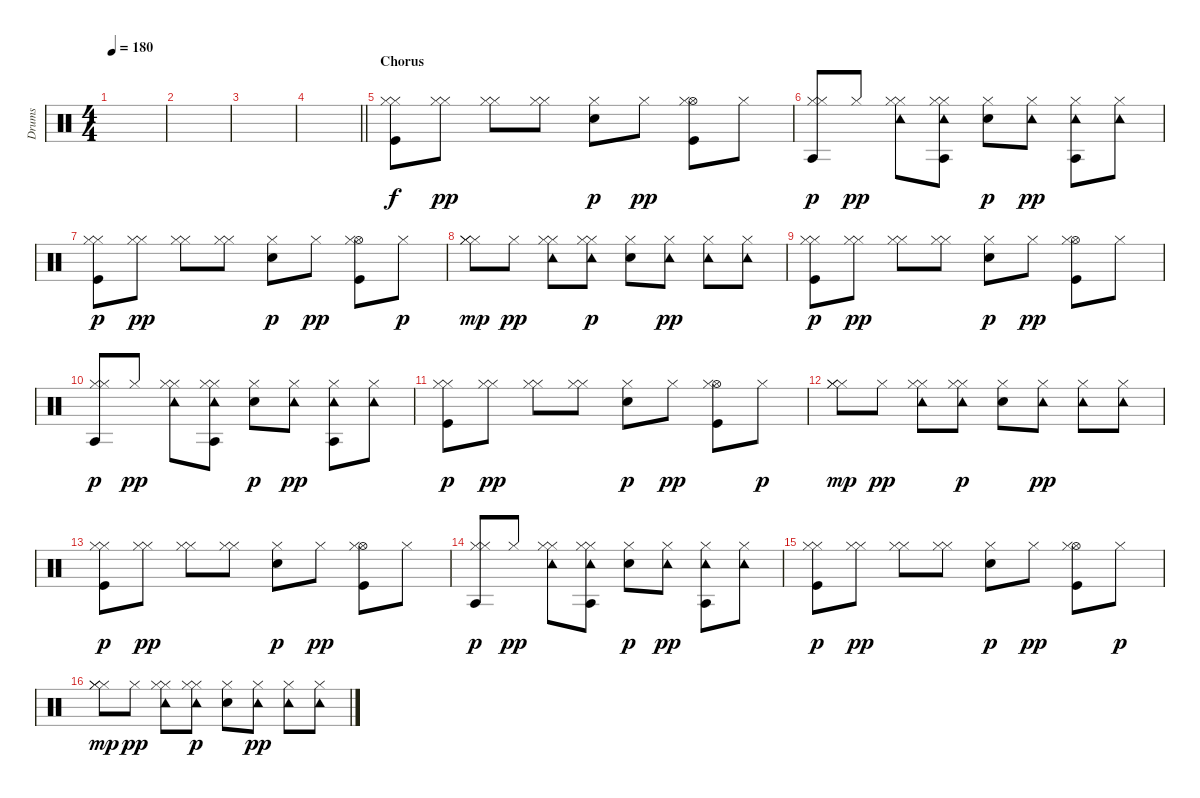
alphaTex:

\track ("Drums" "Drums") {instrument percussion}
\staff {score}
\articulation defaults
\ts (4 4)
\tempo 180
\clef neutral
\ks c
|
|
|
\barLineRight lightlight
|
\section ("" "Chorus")
("Hi-Hat (closed)" "Hi-Hat (closed)" "Kick (hit)").8 ("Hi-Hat (closed)" "Hi-Hat (closed)").8{dy pp} ("Hi-Hat (closed)" "Hi-Hat (closed)").8 ("Hi-Hat (closed)" "Hi-Hat (closed)").8 ("Electric Snare (hit)" "Hi-Hat (closed)").8{dy p} "Hi-Hat (closed)".8{dy pp} ("Hi-Hat (open)" "Hi-Hat (closed)" "Kick (hit)").8 "Hi-Hat (closed)".8 |
("Agogo tow (hit)" "Hi-Hat (closed)" "Hi-Hat (closed)").8{dy p} "Hi-Hat (closed)".8{dy pp} ("Tambourine (hit)" "Hi-Hat (closed)" "Hi-Hat (closed)").8 ("Tambourine (hit)" "Hi-Hat (closed)" "Hi-Hat (closed)" "Agogo tow (hit)").8 ("Electric Snare (hit)" "Hi-Hat (closed)").8{dy p} ("Tambourine (hit)" "Hi-Hat (closed)").8{dy pp} ("Tambourine (hit)" "Hi-Hat (closed)" "Agogo tow (hit)").8 ("Tambourine (hit)" "Hi-Hat (closed)").8 |
("Hi-Hat (closed)" "Hi-Hat (closed)" "Kick (hit)").8{dy p} ("Hi-Hat (closed)" "Hi-Hat (closed)").8{dy pp} ("Hi-Hat (closed)" "Hi-Hat (closed)").8 ("Hi-Hat (closed)" "Hi-Hat (closed)").8 ("Electric Snare (hit)" "Hi-Hat (closed)").8{dy p} "Hi-Hat (closed)".8{dy pp} ("Hi-Hat (open)" "Hi-Hat (closed)" "Kick (hit)").8 "Hi-Hat (closed)".8{dy p} |
("Hi-Hat (closed)" "Hi-Hat (closed)" "Hi-Hat (closed)").8{dy mp} "Hi-Hat (closed)".8{dy pp} ("Tambourine (hit)" "Hi-Hat (closed)" "Hi-Hat (closed)").8 ("Tambourine (hit)" "Hi-Hat (closed)" "Hi-Hat (closed)").8{dy p} ("Electric Snare (hit)" "Hi-Hat (closed)").8 ("Tambourine (hit)" "Hi-Hat (closed)").8{dy pp} ("Tambourine (hit)" "Hi-Hat (closed)").8 ("Tambourine (hit)" "Hi-Hat (closed)").8 |
("Hi-Hat (closed)" "Hi-Hat (closed)" "Kick (hit)").8{dy p} ("Hi-Hat (closed)" "Hi-Hat (closed)").8{dy pp} ("Hi-Hat (closed)" "Hi-Hat (closed)").8 ("Hi-Hat (closed)" "Hi-Hat (closed)").8 ("Electric Snare (hit)" "Hi-Hat (closed)").8{dy p} "Hi-Hat (closed)".8{dy pp} ("Hi-Hat (open)" "Hi-Hat (closed)" "Kick (hit)").8 "Hi-Hat (closed)".8 |
("Agogo tow (hit)" "Hi-Hat (closed)" "Hi-Hat (closed)").8{dy p} "Hi-Hat (closed)".8{dy pp} ("Tambourine (hit)" "Hi-Hat (closed)" "Hi-Hat (closed)").8 ("Tambourine (hit)" "Hi-Hat (closed)" "Hi-Hat (closed)" "Agogo tow (hit)").8 ("Electric Snare (hit)" "Hi-Hat (closed)").8{dy p} ("Tambourine (hit)" "Hi-Hat (closed)").8{dy pp} ("Tambourine (hit)" "Hi-Hat (closed)" "Agogo tow (hit)").8 ("Tambourine (hit)" "Hi-Hat (closed)").8 |
("Hi-Hat (closed)" "Hi-Hat (closed)" "Kick (hit)").8{dy p} ("Hi-Hat (closed)" "Hi-Hat (closed)").8{dy pp} ("Hi-Hat (closed)" "Hi-Hat (closed)").8 ("Hi-Hat (closed)" "Hi-Hat (closed)").8 ("Electric Snare (hit)" "Hi-Hat (closed)").8{dy p} "Hi-Hat (closed)".8{dy pp} ("Hi-Hat (open)" "Hi-Hat (closed)" "Kick (hit)").8 "Hi-Hat (closed)".8{dy p} |
("Hi-Hat (closed)" "Hi-Hat (closed)" "Hi-Hat (closed)").8{dy mp} "Hi-Hat (closed)".8{dy pp} ("Tambourine (hit)" "Hi-Hat (closed)" "Hi-Hat (closed)").8 ("Tambourine (hit)" "Hi-Hat (closed)" "Hi-Hat (closed)").8{dy p} ("Electric Snare (hit)" "Hi-Hat (closed)").8 ("Tambourine (hit)" "Hi-Hat (closed)").8{dy pp} ("Tambourine (hit)" "Hi-Hat (closed)").8 ("Tambourine (hit)" "Hi-Hat (closed)").8 |
("Hi-Hat (closed)" "Hi-Hat (closed)" "Kick (hit)").8{dy p} ("Hi-Hat (closed)" "Hi-Hat (closed)").8{dy pp} ("Hi-Hat (closed)" "Hi-Hat (closed)").8 ("Hi-Hat (closed)" "Hi-Hat (closed)").8 ("Electric Snare (hit)" "Hi-Hat (closed)").8{dy p} "Hi-Hat (closed)".8{dy pp} ("Hi-Hat (open)" "Hi-Hat (closed)" "Kick (hit)").8 "Hi-Hat (closed)".8 |
("Agogo tow (hit)" "Hi-Hat (closed)" "Hi-Hat (closed)").8{dy p} "Hi-Hat (closed)".8{dy pp} ("Tambourine (hit)" "Hi-Hat (closed)" "Hi-Hat (closed)").8 ("Tambourine (hit)" "Hi-Hat (closed)" "Hi-Hat (closed)" "Agogo tow (hit)").8 ("Electric Snare (hit)" "Hi-Hat (closed)").8{dy p} ("Tambourine (hit)" "Hi-Hat (closed)").8{dy pp} ("Tambourine (hit)" "Hi-Hat (closed)" "Agogo tow (hit)").8 ("Tambourine (hit)" "Hi-Hat (closed)").8 |
("Hi-Hat (closed)" "Hi-Hat (closed)" "Kick (hit)").8{dy p} ("Hi-Hat (closed)" "Hi-Hat (closed)").8{dy pp} ("Hi-Hat (closed)" "Hi-Hat (closed)").8 ("Hi-Hat (closed)" "Hi-Hat (closed)").8 ("Electric Snare (hit)" "Hi-Hat (closed)").8{dy p} "Hi-Hat (closed)".8{dy pp} ("Hi-Hat (open)" "Hi-Hat (closed)" "Kick (hit)").8 "Hi-Hat (closed)".8{dy p} |
("Hi-Hat (closed)" "Hi-Hat (closed)" "Hi-Hat (closed)").8{dy mp} "Hi-Hat (closed)".8{dy pp} ("Tambourine (hit)" "Hi-Hat (closed)" "Hi-Hat (closed)").8 ("Tambourine (hit)" "Hi-Hat (closed)" "Hi-Hat (closed)").8{dy p} ("Electric Snare (hit)" "Hi-Hat (closed)").8 ("Tambourine (hit)" "Hi-Hat (closed)").8{dy pp} ("Tambourine (hit)" "Hi-Hat (closed)").8 ("Tambourine (hit)" "Hi-Hat (closed)").8
